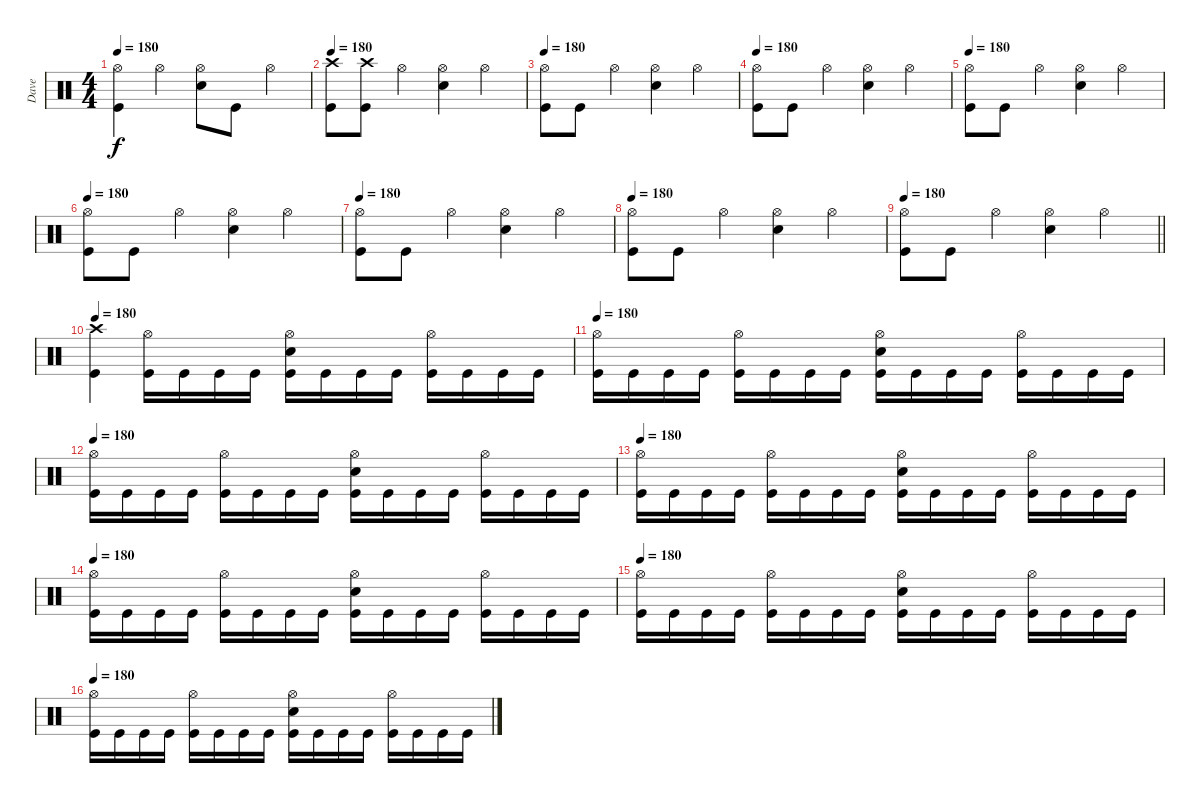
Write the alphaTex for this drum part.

\track ("Dave" "Dave") {instrument percussion}
\staff {score}
\articulation defaults
\ts (4 4)
\tempo 180
\clef neutral
\ks c
("Hi-Hat (open)" "Kick (hit)").4{dy f} "Hi-Hat (open)".4 ("Hi-Hat (open)" "Snare (hit) 2").8 "Kick (hit)".8 "Hi-Hat (open)".4 |
\tempo 180
("Crash high (hit)" "Kick (hit)").8 ("Crash high (hit)" "Kick (hit)").8 "Hi-Hat (open)".4 ("Hi-Hat (open)" "Snare (hit) 2").4 "Hi-Hat (open)".4 |
\tempo 180
("Hi-Hat (open)" "Kick (hit)").8 "Kick (hit)".8 "Hi-Hat (open)".4 ("Hi-Hat (open)" "Snare (hit) 2").4 "Hi-Hat (open)".4 |
\tempo 180
("Hi-Hat (open)" "Kick (hit)").8 "Kick (hit)".8 "Hi-Hat (open)".4 ("Hi-Hat (open)" "Snare (hit) 2").4 "Hi-Hat (open)".4 |
\tempo 180
("Hi-Hat (open)" "Kick (hit)").8 "Kick (hit)".8 "Hi-Hat (open)".4 ("Hi-Hat (open)" "Snare (hit) 2").4 "Hi-Hat (open)".4 |
\tempo 180
("Hi-Hat (open)" "Kick (hit)").8 "Kick (hit)".8 "Hi-Hat (open)".4 ("Hi-Hat (open)" "Snare (hit) 2").4 "Hi-Hat (open)".4 |
\tempo 180
("Hi-Hat (open)" "Kick (hit)").8 "Kick (hit)".8 "Hi-Hat (open)".4 ("Hi-Hat (open)" "Snare (hit) 2").4 "Hi-Hat (open)".4 |
\tempo 180
("Hi-Hat (open)" "Kick (hit)").8 "Kick (hit)".8 "Hi-Hat (open)".4 ("Hi-Hat (open)" "Snare (hit) 2").4 "Hi-Hat (open)".4 |
\tempo 180
\barLineRight lightlight
("Hi-Hat (open)" "Kick (hit)").8 "Kick (hit)".8 "Hi-Hat (open)".4 ("Hi-Hat (open)" "Snare (hit) 2").4 "Hi-Hat (open)".4 |
\tempo 180
("Crash high (hit)" "Kick (hit)").4 ("Hi-Hat (open)" "Kick (hit)").16 "Kick (hit)".16 "Kick (hit)".16 "Kick (hit)".16 ("Hi-Hat (open)" "Snare (hit) 2" "Kick (hit)").16 "Kick (hit)".16 "Kick (hit)".16 "Kick (hit)".16 ("Hi-Hat (open)" "Kick (hit)").16 "Kick (hit)".16 "Kick (hit)".16 "Kick (hit)".16 |
\tempo 180
("Hi-Hat (open)" "Kick (hit)").16 "Kick (hit)".16 "Kick (hit)".16 "Kick (hit)".16 ("Hi-Hat (open)" "Kick (hit)").16 "Kick (hit)".16 "Kick (hit)".16 "Kick (hit)".16 ("Hi-Hat (open)" "Snare (hit) 2" "Kick (hit)").16 "Kick (hit)".16 "Kick (hit)".16 "Kick (hit)".16 ("Hi-Hat (open)" "Kick (hit)").16 "Kick (hit)".16 "Kick (hit)".16 "Kick (hit)".16 |
\tempo 180
("Hi-Hat (open)" "Kick (hit)").16 "Kick (hit)".16 "Kick (hit)".16 "Kick (hit)".16 ("Hi-Hat (open)" "Kick (hit)").16 "Kick (hit)".16 "Kick (hit)".16 "Kick (hit)".16 ("Hi-Hat (open)" "Snare (hit) 2" "Kick (hit)").16 "Kick (hit)".16 "Kick (hit)".16 "Kick (hit)".16 ("Hi-Hat (open)" "Kick (hit)").16 "Kick (hit)".16 "Kick (hit)".16 "Kick (hit)".16 |
\tempo 180
("Hi-Hat (open)" "Kick (hit)").16 "Kick (hit)".16 "Kick (hit)".16 "Kick (hit)".16 ("Hi-Hat (open)" "Kick (hit)").16 "Kick (hit)".16 "Kick (hit)".16 "Kick (hit)".16 ("Hi-Hat (open)" "Snare (hit) 2" "Kick (hit)").16 "Kick (hit)".16 "Kick (hit)".16 "Kick (hit)".16 ("Hi-Hat (open)" "Kick (hit)").16 "Kick (hit)".16 "Kick (hit)".16 "Kick (hit)".16 |
\tempo 180
("Hi-Hat (open)" "Kick (hit)").16 "Kick (hit)".16 "Kick (hit)".16 "Kick (hit)".16 ("Hi-Hat (open)" "Kick (hit)").16 "Kick (hit)".16 "Kick (hit)".16 "Kick (hit)".16 ("Hi-Hat (open)" "Snare (hit) 2" "Kick (hit)").16 "Kick (hit)".16 "Kick (hit)".16 "Kick (hit)".16 ("Hi-Hat (open)" "Kick (hit)").16 "Kick (hit)".16 "Kick (hit)".16 "Kick (hit)".16 |
\tempo 180
("Hi-Hat (open)" "Kick (hit)").16 "Kick (hit)".16 "Kick (hit)".16 "Kick (hit)".16 ("Hi-Hat (open)" "Kick (hit)").16 "Kick (hit)".16 "Kick (hit)".16 "Kick (hit)".16 ("Hi-Hat (open)" "Snare (hit) 2" "Kick (hit)").16 "Kick (hit)".16 "Kick (hit)".16 "Kick (hit)".16 ("Hi-Hat (open)" "Kick (hit)").16 "Kick (hit)".16 "Kick (hit)".16 "Kick (hit)".16 |
\tempo 180
("Hi-Hat (open)" "Kick (hit)").16 "Kick (hit)".16 "Kick (hit)".16 "Kick (hit)".16 ("Hi-Hat (open)" "Kick (hit)").16 "Kick (hit)".16 "Kick (hit)".16 "Kick (hit)".16 ("Hi-Hat (open)" "Snare (hit) 2" "Kick (hit)").16 "Kick (hit)".16 "Kick (hit)".16 "Kick (hit)".16 ("Hi-Hat (open)" "Kick (hit)").16 "Kick (hit)".16 "Kick (hit)".16 "Kick (hit)".16
